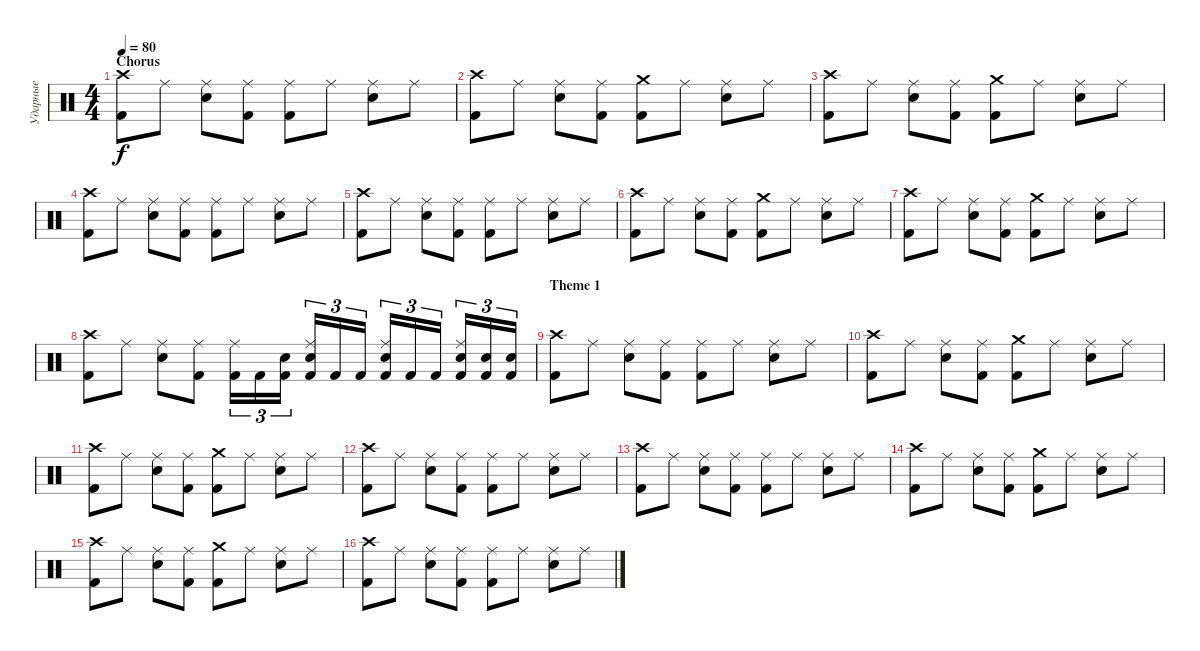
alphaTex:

\track ("Ударные" "Ударные") {instrument percussion}
\staff {score}
\articulation defaults
\ts (4 4)
\section ("" "Chorus")
\tempo 80
\clef neutral
\ks c
("Crash high (hit)" "Kick (hit) 2").8{dy f} "Ride (middle)".8 ("Ride (middle)" "Electric Snare (hit)").8 ("Ride (middle)" "Kick (hit) 2").8 ("Ride (middle)" "Kick (hit) 2").8 "Ride (middle)".8 ("Ride (middle)" "Electric Snare (hit)").8 "Ride (middle)".8 |
("Crash high (hit)" "Kick (hit) 2").8 "Ride (middle)".8 ("Ride (middle)" "Electric Snare (hit)").8 ("Ride (middle)" "Kick (hit) 2").8 ("Crash medium (hit)" "Kick (hit) 2").8 "Ride (middle)".8 ("Ride (middle)" "Electric Snare (hit)").8 "Ride (middle)".8 |
("Crash high (hit)" "Kick (hit) 2").8 "Ride (middle)".8 ("Ride (middle)" "Electric Snare (hit)").8 ("Ride (middle)" "Kick (hit) 2").8 ("Crash medium (hit)" "Kick (hit) 2").8 "Ride (middle)".8 ("Ride (middle)" "Electric Snare (hit)").8 "Ride (middle)".8 |
("Crash high (hit)" "Kick (hit) 2").8 "Ride (middle)".8 ("Ride (middle)" "Electric Snare (hit)").8 ("Ride (middle)" "Kick (hit) 2").8 ("Ride (middle)" "Kick (hit) 2").8 "Ride (middle)".8 ("Ride (middle)" "Electric Snare (hit)").8 "Ride (middle)".8 |
("Crash high (hit)" "Kick (hit) 2").8 "Ride (middle)".8 ("Ride (middle)" "Electric Snare (hit)").8 ("Ride (middle)" "Kick (hit) 2").8 ("Ride (middle)" "Kick (hit) 2").8 "Ride (middle)".8 ("Ride (middle)" "Electric Snare (hit)").8 "Ride (middle)".8 |
("Crash high (hit)" "Kick (hit) 2").8 "Ride (middle)".8 ("Ride (middle)" "Electric Snare (hit)").8 ("Ride (middle)" "Kick (hit) 2").8 ("Crash medium (hit)" "Kick (hit) 2").8 "Ride (middle)".8 ("Ride (middle)" "Electric Snare (hit)").8 "Ride (middle)".8 |
("Crash high (hit)" "Kick (hit) 2").8 "Ride (middle)".8 ("Ride (middle)" "Electric Snare (hit)").8 ("Ride (middle)" "Kick (hit) 2").8 ("Crash medium (hit)" "Kick (hit) 2").8 "Ride (middle)".8 ("Ride (middle)" "Electric Snare (hit)").8 "Ride (middle)".8 |
("Crash high (hit)" "Kick (hit) 2").8 "Ride (middle)".8 ("Ride (middle)" "Electric Snare (hit)").8 ("Ride (middle)" "Kick (hit) 2").8 ("Ride (middle)" "Kick (hit) 2").16{tu (3 2)} "Kick (hit) 2".16{tu (3 2)} ("Electric Snare (hit)" "Kick (hit) 2").16{tu (3 2)} ("Ride (middle)" "Electric Snare (hit)" "Kick (hit) 2").16{tu (3 2)} "Kick (hit) 2".16{tu (3 2)} "Kick (hit) 2".16{tu (3 2)} ("Ride (middle)" "Electric Snare (hit)" "Kick (hit) 2").16{tu (3 2)} "Kick (hit) 2".16{tu (3 2)} "Kick (hit) 2".16{tu (3 2)} ("Ride (middle)" "Electric Snare (hit)" "Kick (hit) 2").16{tu (3 2)} ("Electric Snare (hit)" "Kick (hit) 2").16{tu (3 2)} ("Electric Snare (hit)" "Kick (hit) 2").16{tu (3 2)} |
\section ("" "Theme 1")
("Crash high (hit)" "Kick (hit) 2").8 "Ride (middle)".8 ("Ride (middle)" "Electric Snare (hit)").8 ("Ride (middle)" "Kick (hit) 2").8 ("Ride (middle)" "Kick (hit) 2").8 "Ride (middle)".8 ("Ride (middle)" "Electric Snare (hit)").8 "Ride (middle)".8 |
("Crash high (hit)" "Kick (hit) 2").8 "Ride (middle)".8 ("Ride (middle)" "Electric Snare (hit)").8 ("Ride (middle)" "Kick (hit) 2").8 ("Crash medium (hit)" "Kick (hit) 2").8 "Ride (middle)".8 ("Ride (middle)" "Electric Snare (hit)").8 "Ride (middle)".8 |
("Crash high (hit)" "Kick (hit) 2").8 "Ride (middle)".8 ("Ride (middle)" "Electric Snare (hit)").8 ("Ride (middle)" "Kick (hit) 2").8 ("Crash medium (hit)" "Kick (hit) 2").8 "Ride (middle)".8 ("Ride (middle)" "Electric Snare (hit)").8 "Ride (middle)".8 |
("Crash high (hit)" "Kick (hit) 2").8 "Ride (middle)".8 ("Ride (middle)" "Electric Snare (hit)").8 ("Ride (middle)" "Kick (hit) 2").8 ("Ride (middle)" "Kick (hit) 2").8 "Ride (middle)".8 ("Ride (middle)" "Electric Snare (hit)").8 "Ride (middle)".8 |
("Crash high (hit)" "Kick (hit) 2").8 "Ride (middle)".8 ("Ride (middle)" "Electric Snare (hit)").8 ("Ride (middle)" "Kick (hit) 2").8 ("Ride (middle)" "Kick (hit) 2").8 "Ride (middle)".8 ("Ride (middle)" "Electric Snare (hit)").8 "Ride (middle)".8 |
("Crash high (hit)" "Kick (hit) 2").8 "Ride (middle)".8 ("Ride (middle)" "Electric Snare (hit)").8 ("Ride (middle)" "Kick (hit) 2").8 ("Crash medium (hit)" "Kick (hit) 2").8 "Ride (middle)".8 ("Ride (middle)" "Electric Snare (hit)").8 "Ride (middle)".8 |
("Crash high (hit)" "Kick (hit) 2").8 "Ride (middle)".8 ("Ride (middle)" "Electric Snare (hit)").8 ("Ride (middle)" "Kick (hit) 2").8 ("Crash medium (hit)" "Kick (hit) 2").8 "Ride (middle)".8 ("Ride (middle)" "Electric Snare (hit)").8 "Ride (middle)".8 |
("Crash high (hit)" "Kick (hit) 2").8 "Ride (middle)".8 ("Ride (middle)" "Electric Snare (hit)").8 ("Ride (middle)" "Kick (hit) 2").8 ("Ride (middle)" "Kick (hit) 2").8 "Ride (middle)".8 ("Ride (middle)" "Electric Snare (hit)").8 "Ride (middle)".8
